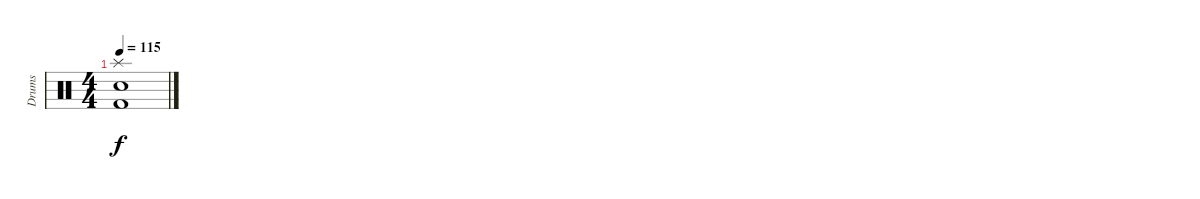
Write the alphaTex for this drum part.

\track ("Drums" "Drums") {instrument percussion}
\staff {score}
\articulation defaults
\ts (4 4)
\tempo 115
\clef neutral
\ks c
("Splash (hit)" "Snare (hit) 2" "Kick (hit) 2").1{dy f}
